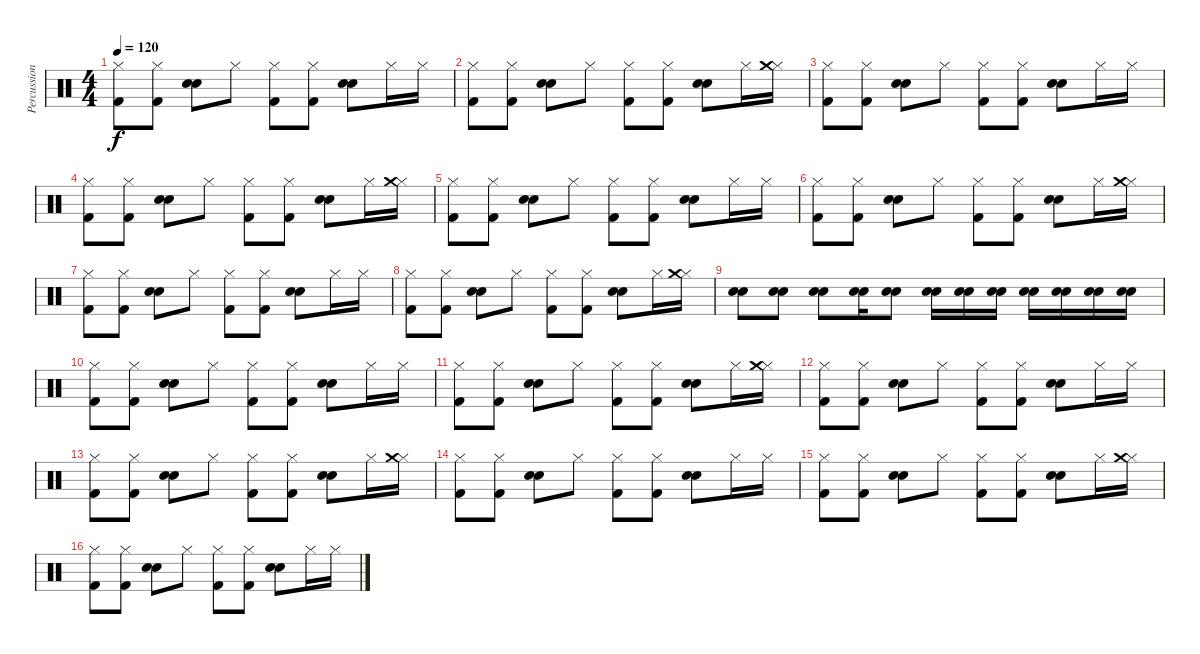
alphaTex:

\track ("Percussions" "Percussion") {instrument percussion}
\staff {score}
\articulation defaults
\ts (4 4)
\tempo 120
\clef neutral
\ks c
("Kick (hit) 2" "Hi-Hat (closed)").8{dy f} ("Kick (hit) 2" "Hi-Hat (closed)").8 ("Hand Clap (hit)" "Electric Snare (hit)").8 "Hi-Hat (closed)".8 ("Kick (hit) 2" "Hi-Hat (closed)").8 ("Kick (hit) 2" "Hi-Hat (closed)").8 ("Hand Clap (hit)" "Electric Snare (hit)").8 "Hi-Hat (closed)".16 "Hi-Hat (closed)".16 |
("Kick (hit) 2" "Hi-Hat (closed)").8 ("Kick (hit) 2" "Hi-Hat (closed)").8 ("Hand Clap (hit)" "Electric Snare (hit)").8 "Hi-Hat (closed)".8 ("Kick (hit) 2" "Hi-Hat (closed)").8 ("Kick (hit) 2" "Hi-Hat (closed)").8 ("Hand Clap (hit)" "Electric Snare (hit)").8 "Hi-Hat (closed)".16 ("Hi-Hat (closed)" "Crash medium (hit)").16 |
("Kick (hit) 2" "Hi-Hat (closed)").8 ("Kick (hit) 2" "Hi-Hat (closed)").8 ("Hand Clap (hit)" "Electric Snare (hit)").8 "Hi-Hat (closed)".8 ("Kick (hit) 2" "Hi-Hat (closed)").8 ("Kick (hit) 2" "Hi-Hat (closed)").8 ("Hand Clap (hit)" "Electric Snare (hit)").8 "Hi-Hat (closed)".16 "Hi-Hat (closed)".16 |
("Kick (hit) 2" "Hi-Hat (closed)").8 ("Kick (hit) 2" "Hi-Hat (closed)").8 ("Hand Clap (hit)" "Electric Snare (hit)").8 "Hi-Hat (closed)".8 ("Kick (hit) 2" "Hi-Hat (closed)").8 ("Kick (hit) 2" "Hi-Hat (closed)").8 ("Hand Clap (hit)" "Electric Snare (hit)").8 "Hi-Hat (closed)".16 ("Hi-Hat (closed)" "Crash medium (hit)").16 |
("Kick (hit) 2" "Hi-Hat (closed)").8 ("Kick (hit) 2" "Hi-Hat (closed)").8 ("Hand Clap (hit)" "Electric Snare (hit)").8 "Hi-Hat (closed)".8 ("Kick (hit) 2" "Hi-Hat (closed)").8 ("Kick (hit) 2" "Hi-Hat (closed)").8 ("Hand Clap (hit)" "Electric Snare (hit)").8 "Hi-Hat (closed)".16 "Hi-Hat (closed)".16 |
("Kick (hit) 2" "Hi-Hat (closed)").8 ("Kick (hit) 2" "Hi-Hat (closed)").8 ("Hand Clap (hit)" "Electric Snare (hit)").8 "Hi-Hat (closed)".8 ("Kick (hit) 2" "Hi-Hat (closed)").8 ("Kick (hit) 2" "Hi-Hat (closed)").8 ("Hand Clap (hit)" "Electric Snare (hit)").8 "Hi-Hat (closed)".16 ("Hi-Hat (closed)" "Crash medium (hit)").16 |
("Kick (hit) 2" "Hi-Hat (closed)").8 ("Kick (hit) 2" "Hi-Hat (closed)").8 ("Hand Clap (hit)" "Electric Snare (hit)").8 "Hi-Hat (closed)".8 ("Kick (hit) 2" "Hi-Hat (closed)").8 ("Kick (hit) 2" "Hi-Hat (closed)").8 ("Hand Clap (hit)" "Electric Snare (hit)").8 "Hi-Hat (closed)".16 "Hi-Hat (closed)".16 |
("Kick (hit) 2" "Hi-Hat (closed)").8 ("Kick (hit) 2" "Hi-Hat (closed)").8 ("Hand Clap (hit)" "Electric Snare (hit)").8 "Hi-Hat (closed)".8 ("Kick (hit) 2" "Hi-Hat (closed)").8 ("Kick (hit) 2" "Hi-Hat (closed)").8 ("Hand Clap (hit)" "Electric Snare (hit)").8 "Hi-Hat (closed)".16 ("Hi-Hat (closed)" "Crash medium (hit)").16 |
("Hand Clap (hit)" "Electric Snare (hit)").8 ("Hand Clap (hit)" "Electric Snare (hit)").8 ("Hand Clap (hit)" "Electric Snare (hit)").8 ("Hand Clap (hit)" "Electric Snare (hit)").16 ("Hand Clap (hit)" "Electric Snare (hit)").8 ("Hand Clap (hit)" "Electric Snare (hit)").16 ("Hand Clap (hit)" "Electric Snare (hit)").16 ("Hand Clap (hit)" "Electric Snare (hit)").16 ("Hand Clap (hit)" "Electric Snare (hit)").16 ("Hand Clap (hit)" "Electric Snare (hit)").16 ("Hand Clap (hit)" "Electric Snare (hit)").16 ("Hand Clap (hit)" "Electric Snare (hit)").16 |
("Kick (hit) 2" "Hi-Hat (closed)").8 ("Kick (hit) 2" "Hi-Hat (closed)").8 ("Hand Clap (hit)" "Electric Snare (hit)").8 "Hi-Hat (closed)".8 ("Kick (hit) 2" "Hi-Hat (closed)").8 ("Kick (hit) 2" "Hi-Hat (closed)").8 ("Hand Clap (hit)" "Electric Snare (hit)").8 "Hi-Hat (closed)".16 "Hi-Hat (closed)".16 |
("Kick (hit) 2" "Hi-Hat (closed)").8 ("Kick (hit) 2" "Hi-Hat (closed)").8 ("Hand Clap (hit)" "Electric Snare (hit)").8 "Hi-Hat (closed)".8 ("Kick (hit) 2" "Hi-Hat (closed)").8 ("Kick (hit) 2" "Hi-Hat (closed)").8 ("Hand Clap (hit)" "Electric Snare (hit)").8 "Hi-Hat (closed)".16 ("Hi-Hat (closed)" "Crash medium (hit)").16 |
("Kick (hit) 2" "Hi-Hat (closed)").8 ("Kick (hit) 2" "Hi-Hat (closed)").8 ("Hand Clap (hit)" "Electric Snare (hit)").8 "Hi-Hat (closed)".8 ("Kick (hit) 2" "Hi-Hat (closed)").8 ("Kick (hit) 2" "Hi-Hat (closed)").8 ("Hand Clap (hit)" "Electric Snare (hit)").8 "Hi-Hat (closed)".16 "Hi-Hat (closed)".16 |
("Kick (hit) 2" "Hi-Hat (closed)").8 ("Kick (hit) 2" "Hi-Hat (closed)").8 ("Hand Clap (hit)" "Electric Snare (hit)").8 "Hi-Hat (closed)".8 ("Kick (hit) 2" "Hi-Hat (closed)").8 ("Kick (hit) 2" "Hi-Hat (closed)").8 ("Hand Clap (hit)" "Electric Snare (hit)").8 "Hi-Hat (closed)".16 ("Hi-Hat (closed)" "Crash medium (hit)").16 |
("Kick (hit) 2" "Hi-Hat (closed)").8 ("Kick (hit) 2" "Hi-Hat (closed)").8 ("Hand Clap (hit)" "Electric Snare (hit)").8 "Hi-Hat (closed)".8 ("Kick (hit) 2" "Hi-Hat (closed)").8 ("Kick (hit) 2" "Hi-Hat (closed)").8 ("Hand Clap (hit)" "Electric Snare (hit)").8 "Hi-Hat (closed)".16 "Hi-Hat (closed)".16 |
("Kick (hit) 2" "Hi-Hat (closed)").8 ("Kick (hit) 2" "Hi-Hat (closed)").8 ("Hand Clap (hit)" "Electric Snare (hit)").8 "Hi-Hat (closed)".8 ("Kick (hit) 2" "Hi-Hat (closed)").8 ("Kick (hit) 2" "Hi-Hat (closed)").8 ("Hand Clap (hit)" "Electric Snare (hit)").8 "Hi-Hat (closed)".16 ("Hi-Hat (closed)" "Crash medium (hit)").16 |
("Kick (hit) 2" "Hi-Hat (closed)").8 ("Kick (hit) 2" "Hi-Hat (closed)").8 ("Hand Clap (hit)" "Electric Snare (hit)").8 "Hi-Hat (closed)".8 ("Kick (hit) 2" "Hi-Hat (closed)").8 ("Kick (hit) 2" "Hi-Hat (closed)").8 ("Hand Clap (hit)" "Electric Snare (hit)").8 "Hi-Hat (closed)".16 "Hi-Hat (closed)".16
